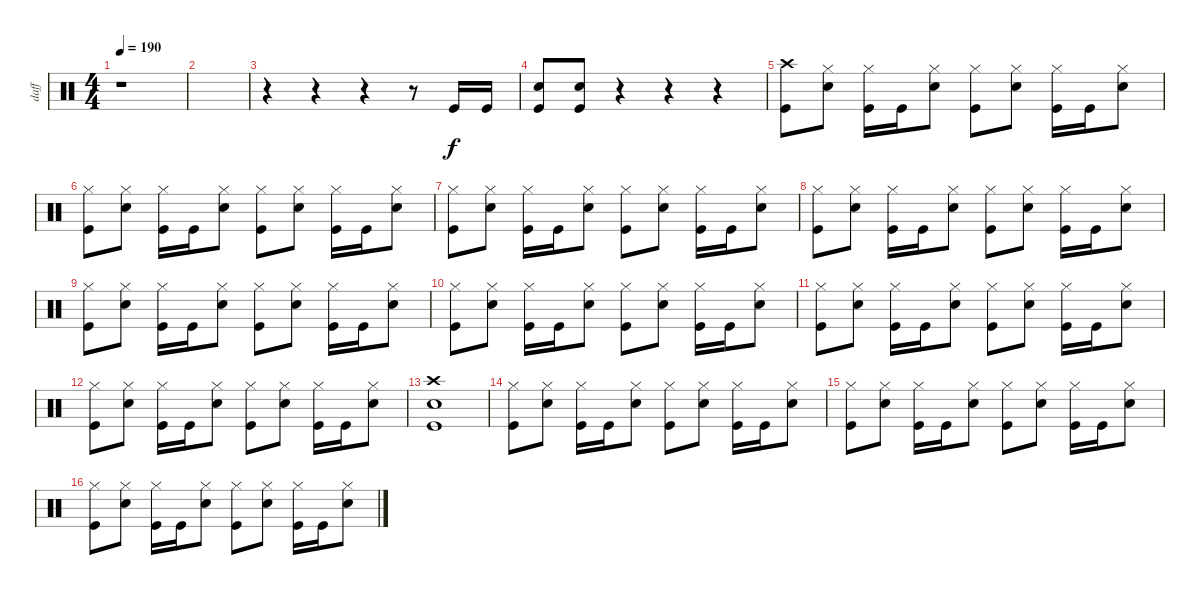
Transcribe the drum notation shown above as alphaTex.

\track ("daff" "daff") {instrument percussion}
\staff {score}
\articulation defaults
\ts (4 4)
\tempo 190
\clef neutral
\ks c
r.1{dy f} |
|
r.4 r.4 r.4 r.8 "Kick (hit)".16 "Kick (hit)".16 |
("Electric Snare (hit)" "Kick (hit)").8 ("Electric Snare (hit)" "Kick (hit)").8 r.4 r.4 r.4 |
("Crash high (hit)" "Kick (hit)").8 ("Hi-Hat (closed)" "Electric Snare (hit)").8 ("Hi-Hat (closed)" "Kick (hit)").16 "Kick (hit)".16 ("Hi-Hat (closed)" "Electric Snare (hit)").8 ("Hi-Hat (closed)" "Kick (hit)").8 ("Hi-Hat (closed)" "Electric Snare (hit)").8 ("Hi-Hat (closed)" "Kick (hit)").16 "Kick (hit)".16 ("Hi-Hat (closed)" "Electric Snare (hit)").8 |
("Hi-Hat (closed)" "Kick (hit)").8 ("Hi-Hat (closed)" "Electric Snare (hit)").8 ("Hi-Hat (closed)" "Kick (hit)").16 "Kick (hit)".16 ("Hi-Hat (closed)" "Electric Snare (hit)").8 ("Hi-Hat (closed)" "Kick (hit)").8 ("Hi-Hat (closed)" "Electric Snare (hit)").8 ("Hi-Hat (closed)" "Kick (hit)").16 "Kick (hit)".16 ("Hi-Hat (closed)" "Electric Snare (hit)").8 |
("Hi-Hat (closed)" "Kick (hit)").8 ("Hi-Hat (closed)" "Electric Snare (hit)").8 ("Hi-Hat (closed)" "Kick (hit)").16 "Kick (hit)".16 ("Hi-Hat (closed)" "Electric Snare (hit)").8 ("Hi-Hat (closed)" "Kick (hit)").8 ("Hi-Hat (closed)" "Electric Snare (hit)").8 ("Hi-Hat (closed)" "Kick (hit)").16 "Kick (hit)".16 ("Hi-Hat (closed)" "Electric Snare (hit)").8 |
("Hi-Hat (closed)" "Kick (hit)").8 ("Hi-Hat (closed)" "Electric Snare (hit)").8 ("Hi-Hat (closed)" "Kick (hit)").16 "Kick (hit)".16 ("Hi-Hat (closed)" "Electric Snare (hit)").8 ("Hi-Hat (closed)" "Kick (hit)").8 ("Hi-Hat (closed)" "Electric Snare (hit)").8 ("Hi-Hat (closed)" "Kick (hit)").16 "Kick (hit)".16 ("Hi-Hat (closed)" "Electric Snare (hit)").8 |
("Hi-Hat (closed)" "Kick (hit)").8 ("Hi-Hat (closed)" "Electric Snare (hit)").8 ("Hi-Hat (closed)" "Kick (hit)").16 "Kick (hit)".16 ("Hi-Hat (closed)" "Electric Snare (hit)").8 ("Hi-Hat (closed)" "Kick (hit)").8 ("Hi-Hat (closed)" "Electric Snare (hit)").8 ("Hi-Hat (closed)" "Kick (hit)").16 "Kick (hit)".16 ("Hi-Hat (closed)" "Electric Snare (hit)").8 |
("Hi-Hat (closed)" "Kick (hit)").8 ("Hi-Hat (closed)" "Electric Snare (hit)").8 ("Hi-Hat (closed)" "Kick (hit)").16 "Kick (hit)".16 ("Hi-Hat (closed)" "Electric Snare (hit)").8 ("Hi-Hat (closed)" "Kick (hit)").8 ("Hi-Hat (closed)" "Electric Snare (hit)").8 ("Hi-Hat (closed)" "Kick (hit)").16 "Kick (hit)".16 ("Hi-Hat (closed)" "Electric Snare (hit)").8 |
("Hi-Hat (closed)" "Kick (hit)").8 ("Hi-Hat (closed)" "Electric Snare (hit)").8 ("Hi-Hat (closed)" "Kick (hit)").16 "Kick (hit)".16 ("Hi-Hat (closed)" "Electric Snare (hit)").8 ("Hi-Hat (closed)" "Kick (hit)").8 ("Hi-Hat (closed)" "Electric Snare (hit)").8 ("Hi-Hat (closed)" "Kick (hit)").16 "Kick (hit)".16 ("Hi-Hat (closed)" "Electric Snare (hit)").8 |
("Hi-Hat (closed)" "Kick (hit)").8 ("Hi-Hat (closed)" "Electric Snare (hit)").8 ("Hi-Hat (closed)" "Kick (hit)").16 "Kick (hit)".16 ("Hi-Hat (closed)" "Electric Snare (hit)").8 ("Hi-Hat (closed)" "Kick (hit)").8 ("Hi-Hat (closed)" "Electric Snare (hit)").8 ("Hi-Hat (closed)" "Kick (hit)").16 "Kick (hit)".16 ("Hi-Hat (closed)" "Electric Snare (hit)").8 |
("Crash high (hit)" "Electric Snare (hit)" "Kick (hit)").1 |
("Hi-Hat (closed)" "Kick (hit)").8 ("Hi-Hat (closed)" "Electric Snare (hit)").8 ("Hi-Hat (closed)" "Kick (hit)").16 "Kick (hit)".16 ("Hi-Hat (closed)" "Electric Snare (hit)").8 ("Hi-Hat (closed)" "Kick (hit)").8 ("Hi-Hat (closed)" "Electric Snare (hit)").8 ("Hi-Hat (closed)" "Kick (hit)").16 "Kick (hit)".16 ("Hi-Hat (closed)" "Electric Snare (hit)").8 |
("Hi-Hat (closed)" "Kick (hit)").8 ("Hi-Hat (closed)" "Electric Snare (hit)").8 ("Hi-Hat (closed)" "Kick (hit)").16 "Kick (hit)".16 ("Hi-Hat (closed)" "Electric Snare (hit)").8 ("Hi-Hat (closed)" "Kick (hit)").8 ("Hi-Hat (closed)" "Electric Snare (hit)").8 ("Hi-Hat (closed)" "Kick (hit)").16 "Kick (hit)".16 ("Hi-Hat (closed)" "Electric Snare (hit)").8 |
("Hi-Hat (closed)" "Kick (hit)").8 ("Hi-Hat (closed)" "Electric Snare (hit)").8 ("Hi-Hat (closed)" "Kick (hit)").16 "Kick (hit)".16 ("Hi-Hat (closed)" "Electric Snare (hit)").8 ("Hi-Hat (closed)" "Kick (hit)").8 ("Hi-Hat (closed)" "Electric Snare (hit)").8 ("Hi-Hat (closed)" "Kick (hit)").16 "Kick (hit)".16 ("Hi-Hat (closed)" "Electric Snare (hit)").8
